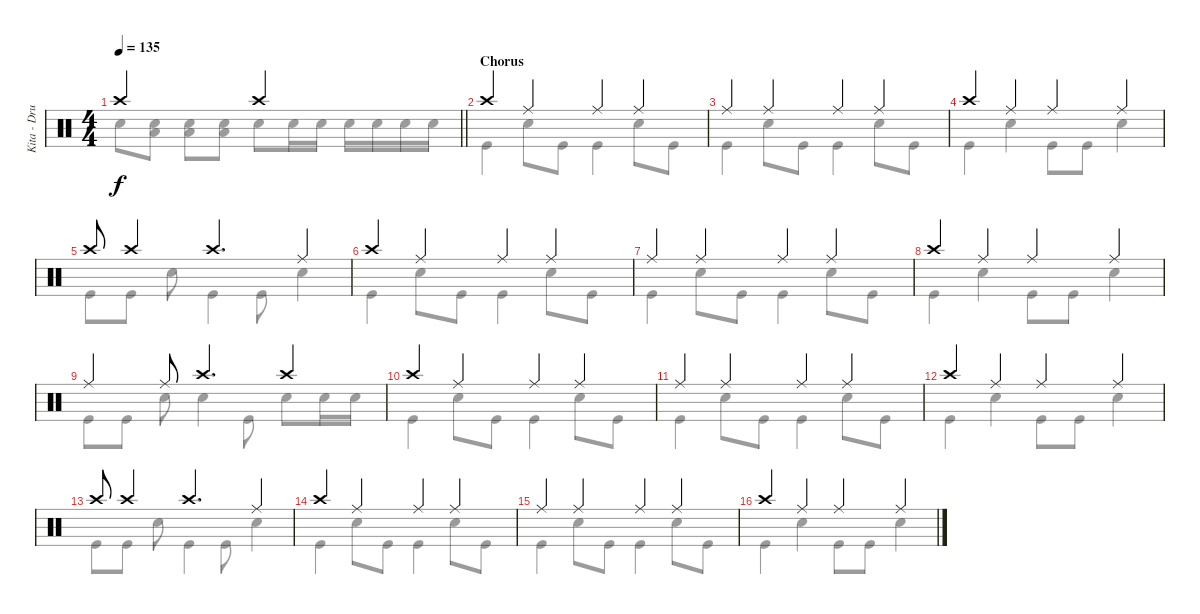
\track ("Kita - Drums" "Kita - Dru") {instrument percussion}
\staff {score}
\articulation defaults
\voice
\ts (4 4)
\tempo 135
\clef neutral
\barLineRight lightlight
\ks c "Crash high (hit)".2{dy f} "Crash high (hit)".2
|
\section ("" "Chorus")
"Crash high (hit)".4 "Ride (middle)".4 "Ride (middle)".4 "Ride (middle)".4 |
"Ride (middle)".4 "Ride (middle)".4 "Ride (middle)".4 "Ride (middle)".4 |
"Crash high (hit)".4 "Ride (middle)".4 "Ride (middle)".4 "Ride (middle)".4 |
"Crash high (hit)".8 "Crash high (hit)".4 "Crash high (hit)".4{d} "Ride (middle)".4 |
"Crash high (hit)".4 "Ride (middle)".4 "Ride (middle)".4 "Ride (middle)".4 |
"Ride (middle)".4 "Ride (middle)".4 "Ride (middle)".4 "Ride (middle)".4 |
"Crash high (hit)".4 "Ride (middle)".4 "Ride (middle)".4 "Ride (middle)".4 |
"Ride (middle)".4 "Ride (middle)".8 "Crash high (hit)".4{d} "Crash high (hit)".4 |
"Crash high (hit)".4 "Ride (middle)".4 "Ride (middle)".4 "Ride (middle)".4 |
"Ride (middle)".4 "Ride (middle)".4 "Ride (middle)".4 "Ride (middle)".4 |
"Crash high (hit)".4 "Ride (middle)".4 "Ride (middle)".4 "Ride (middle)".4 |
"Crash high (hit)".8 "Crash high (hit)".4 "Crash high (hit)".4{d} "Ride (middle)".4 |
"Crash high (hit)".4 "Ride (middle)".4 "Ride (middle)".4 "Ride (middle)".4 |
"Ride (middle)".4 "Ride (middle)".4 "Ride (middle)".4 "Ride (middle)".4 |
"Crash high (hit)".4 "Ride (middle)".4 "Ride (middle)".4 "Ride (middle)".4
\voice
\clef neutral
\ottava regular
\simile none
\barLineRight lightlight
\ks c "Snare (hit) 2".8{dy f}
("Snare (hit) 2" "Low Floor Tom (hit)").8 ("Snare (hit) 2" "Low Floor Tom (hit)").8 ("Snare (hit) 2" "Low Floor Tom (hit)").8 "Snare (hit) 2".8 "Snare (hit) 2".16 "Snare (hit) 2".16 "Snare (hit) 2".16 "Snare (hit) 2".16 "Snare (hit) 2".16 "Snare (hit) 2".16 |
"Kick (hit)".4 "Snare (hit) 2".8 "Kick (hit)".8 "Kick (hit)".4 "Snare (hit) 2".8 "Kick (hit)".8 |
"Kick (hit)".4 "Snare (hit) 2".8 "Kick (hit)".8 "Kick (hit)".4 "Snare (hit) 2".8 "Kick (hit)".8 |
"Kick (hit)".4 "Snare (hit) 2".4 "Kick (hit)".8 "Kick (hit)".8 "Snare (hit) 2".4 |
"Kick (hit)".8 "Kick (hit)".8 "Snare (hit) 2".8 "Kick (hit)".4 "Kick (hit)".8 "Snare (hit) 2".4 |
"Kick (hit)".4 "Snare (hit) 2".8 "Kick (hit)".8 "Kick (hit)".4 "Snare (hit) 2".8 "Kick (hit)".8 |
"Kick (hit)".4 "Snare (hit) 2".8 "Kick (hit)".8 "Kick (hit)".4 "Snare (hit) 2".8 "Kick (hit)".8 |
"Kick (hit)".4 "Snare (hit) 2".4 "Kick (hit)".8 "Kick (hit)".8 "Snare (hit) 2".4 |
"Kick (hit)".8 "Kick (hit)".8 "Snare (hit) 2".8 "Snare (hit) 2".4 "Kick (hit)".8 "Snare (hit) 2".8 "Snare (hit) 2".16 "Snare (hit) 2".16 |
"Kick (hit)".4 "Snare (hit) 2".8 "Kick (hit)".8 "Kick (hit)".4 "Snare (hit) 2".8 "Kick (hit)".8 |
"Kick (hit)".4 "Snare (hit) 2".8 "Kick (hit)".8 "Kick (hit)".4 "Snare (hit) 2".8 "Kick (hit)".8 |
"Kick (hit)".4 "Snare (hit) 2".4 "Kick (hit)".8 "Kick (hit)".8 "Snare (hit) 2".4 |
"Kick (hit)".8 "Kick (hit)".8 "Snare (hit) 2".8 "Kick (hit)".4 "Kick (hit)".8 "Snare (hit) 2".4 |
"Kick (hit)".4 "Snare (hit) 2".8 "Kick (hit)".8 "Kick (hit)".4 "Snare (hit) 2".8 "Kick (hit)".8 |
"Kick (hit)".4 "Snare (hit) 2".8 "Kick (hit)".8 "Kick (hit)".4 "Snare (hit) 2".8 "Kick (hit)".8 |
"Kick (hit)".4 "Snare (hit) 2".4 "Kick (hit)".8 "Kick (hit)".8 "Snare (hit) 2".4
